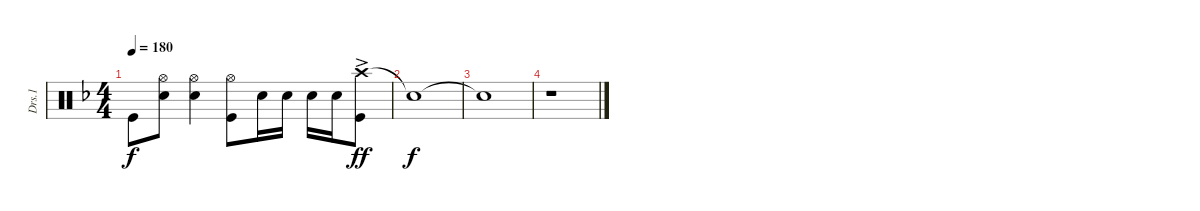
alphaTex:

\track ("Drs.1" "Drs.1") {instrument percussion}
\staff {score}
\articulation defaults
\ts (4 4)
\tempo 180
\clef neutral
\ks f "Kick (hit)".8{dy f}
("Hi-Hat (open)" "Snare (hit) 2").8 ("Hi-Hat (open)" "Snare (hit) 2").4 ("Hi-Hat (open)" "Kick (hit)").8 "Snare (hit) 2".16 "Snare (hit) 2".16 "Snare (hit) 2".16 "Snare (hit) 2".16 ("Crash high (hit)"{ac} "Kick (hit)").8{dy ff} |
"Snare (hit)"{t}.1{dy f} |
"Snare (hit)"{t}.1 |
r.1
